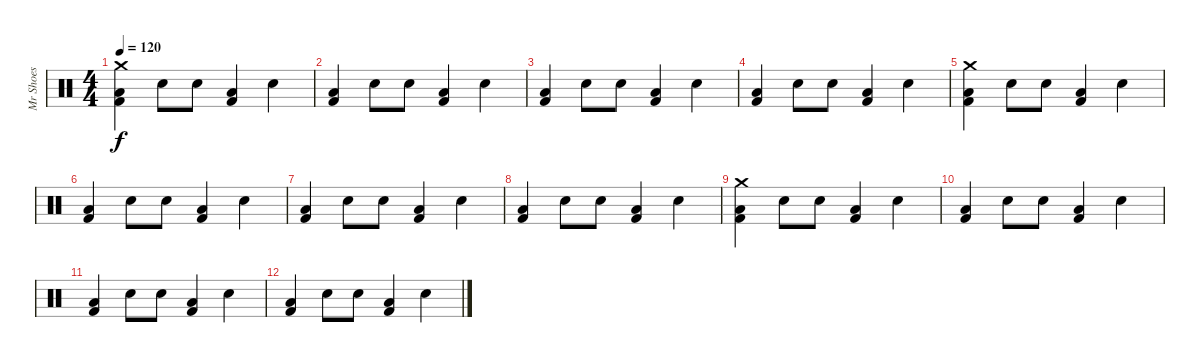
\track ("Mr Shoes" "Mr Shoes") {instrument percussion}
\staff {score}
\articulation defaults
\ts (4 4)
\tempo 120
\clef neutral
\ks c
("Crash medium (hit)" "Kick (hit) 2" "Low Floor Tom (hit)").4{dy f} "Electric Snare (hit)".8 "Electric Snare (hit)".8 ("Kick (hit) 2" "Low Floor Tom (hit)").4 "Electric Snare (hit)".4 |
("Kick (hit) 2" "Low Floor Tom (hit)").4 "Electric Snare (hit)".8 "Electric Snare (hit)".8 ("Kick (hit) 2" "Low Floor Tom (hit)").4 "Electric Snare (hit)".4 |
("Kick (hit) 2" "Low Floor Tom (hit)").4 "Electric Snare (hit)".8 "Electric Snare (hit)".8 ("Kick (hit) 2" "Low Floor Tom (hit)").4 "Electric Snare (hit)".4 |
("Kick (hit) 2" "Low Floor Tom (hit)").4 "Electric Snare (hit)".8 "Electric Snare (hit)".8 ("Kick (hit) 2" "Low Floor Tom (hit)").4 "Electric Snare (hit)".4 |
("Crash medium (hit)" "Kick (hit) 2" "Low Floor Tom (hit)").4 "Electric Snare (hit)".8 "Electric Snare (hit)".8 ("Kick (hit) 2" "Low Floor Tom (hit)").4 "Electric Snare (hit)".4 |
("Kick (hit) 2" "Low Floor Tom (hit)").4 "Electric Snare (hit)".8 "Electric Snare (hit)".8 ("Kick (hit) 2" "Low Floor Tom (hit)").4 "Electric Snare (hit)".4 |
("Kick (hit) 2" "Low Floor Tom (hit)").4 "Electric Snare (hit)".8 "Electric Snare (hit)".8 ("Kick (hit) 2" "Low Floor Tom (hit)").4 "Electric Snare (hit)".4 |
("Kick (hit) 2" "Low Floor Tom (hit)").4 "Electric Snare (hit)".8 "Electric Snare (hit)".8 ("Kick (hit) 2" "Low Floor Tom (hit)").4 "Electric Snare (hit)".4 |
("Crash medium (hit)" "Kick (hit) 2" "Low Floor Tom (hit)").4 "Electric Snare (hit)".8 "Electric Snare (hit)".8 ("Kick (hit) 2" "Low Floor Tom (hit)").4 "Electric Snare (hit)".4 |
("Kick (hit) 2" "Low Floor Tom (hit)").4 "Electric Snare (hit)".8 "Electric Snare (hit)".8 ("Kick (hit) 2" "Low Floor Tom (hit)").4 "Electric Snare (hit)".4 |
("Kick (hit) 2" "Low Floor Tom (hit)").4 "Electric Snare (hit)".8 "Electric Snare (hit)".8 ("Kick (hit) 2" "Low Floor Tom (hit)").4 "Electric Snare (hit)".4 |
("Kick (hit) 2" "Low Floor Tom (hit)").4 "Electric Snare (hit)".8 "Electric Snare (hit)".8 ("Kick (hit) 2" "Low Floor Tom (hit)").4 "Electric Snare (hit)".4
